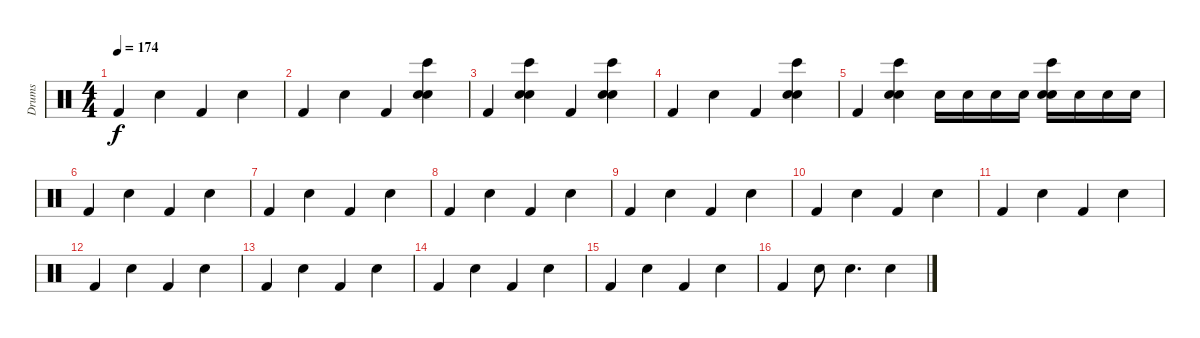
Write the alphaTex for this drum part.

\track ("Drums" "Drums") {instrument percussion}
\staff {score}
\articulation defaults
\ts (4 4)
\tempo 174
\clef neutral
\ks c "Kick (hit) 2".4{dy f} "Electric Snare (hit)".4 "Kick (hit) 2".4 "Electric Snare (hit)".4
|
"Kick (hit) 2".4 "Electric Snare (hit)".4 "Kick (hit) 2".4 ("Electric Snare (hit)" "Hand Clap (hit)" "Bongo High (hit)").4 |
"Kick (hit) 2".4 ("Electric Snare (hit)" "Hand Clap (hit)" "Bongo High (hit)").4 "Kick (hit) 2".4 ("Electric Snare (hit)" "Hand Clap (hit)" "Bongo High (hit)").4 |
"Kick (hit) 2".4 "Electric Snare (hit)".4 "Kick (hit) 2".4 ("Electric Snare (hit)" "Hand Clap (hit)" "Bongo High (hit)").4 |
"Kick (hit) 2".4 ("Electric Snare (hit)" "Hand Clap (hit)" "Bongo High (hit)").4 "Electric Snare (hit)".16 "Electric Snare (hit)".16 "Electric Snare (hit)".16 "Electric Snare (hit)".16 ("Electric Snare (hit)" "Hand Clap (hit)" "Bongo High (hit)").16 "Electric Snare (hit)".16 "Electric Snare (hit)".16 "Electric Snare (hit)".16 |
"Kick (hit) 2".4 "Electric Snare (hit)".4 "Kick (hit) 2".4 "Electric Snare (hit)".4 |
"Kick (hit) 2".4 "Electric Snare (hit)".4 "Kick (hit) 2".4 "Electric Snare (hit)".4 |
"Kick (hit) 2".4 "Electric Snare (hit)".4 "Kick (hit) 2".4 "Electric Snare (hit)".4 |
"Kick (hit) 2".4 "Electric Snare (hit)".4 "Kick (hit) 2".4 "Electric Snare (hit)".4 |
"Kick (hit) 2".4 "Electric Snare (hit)".4 "Kick (hit) 2".4 "Electric Snare (hit)".4 |
"Kick (hit) 2".4 "Electric Snare (hit)".4 "Kick (hit) 2".4 "Electric Snare (hit)".4 |
"Kick (hit) 2".4 "Electric Snare (hit)".4 "Kick (hit) 2".4 "Electric Snare (hit)".4 |
"Kick (hit) 2".4 "Electric Snare (hit)".4 "Kick (hit) 2".4 "Electric Snare (hit)".4 |
"Kick (hit) 2".4 "Electric Snare (hit)".4 "Kick (hit) 2".4 "Electric Snare (hit)".4 |
"Kick (hit) 2".4 "Electric Snare (hit)".4 "Kick (hit) 2".4 "Electric Snare (hit)".4 |
"Kick (hit) 2".4 "Electric Snare (hit)".8 "Electric Snare (hit)".4{d} "Electric Snare (hit)".4
